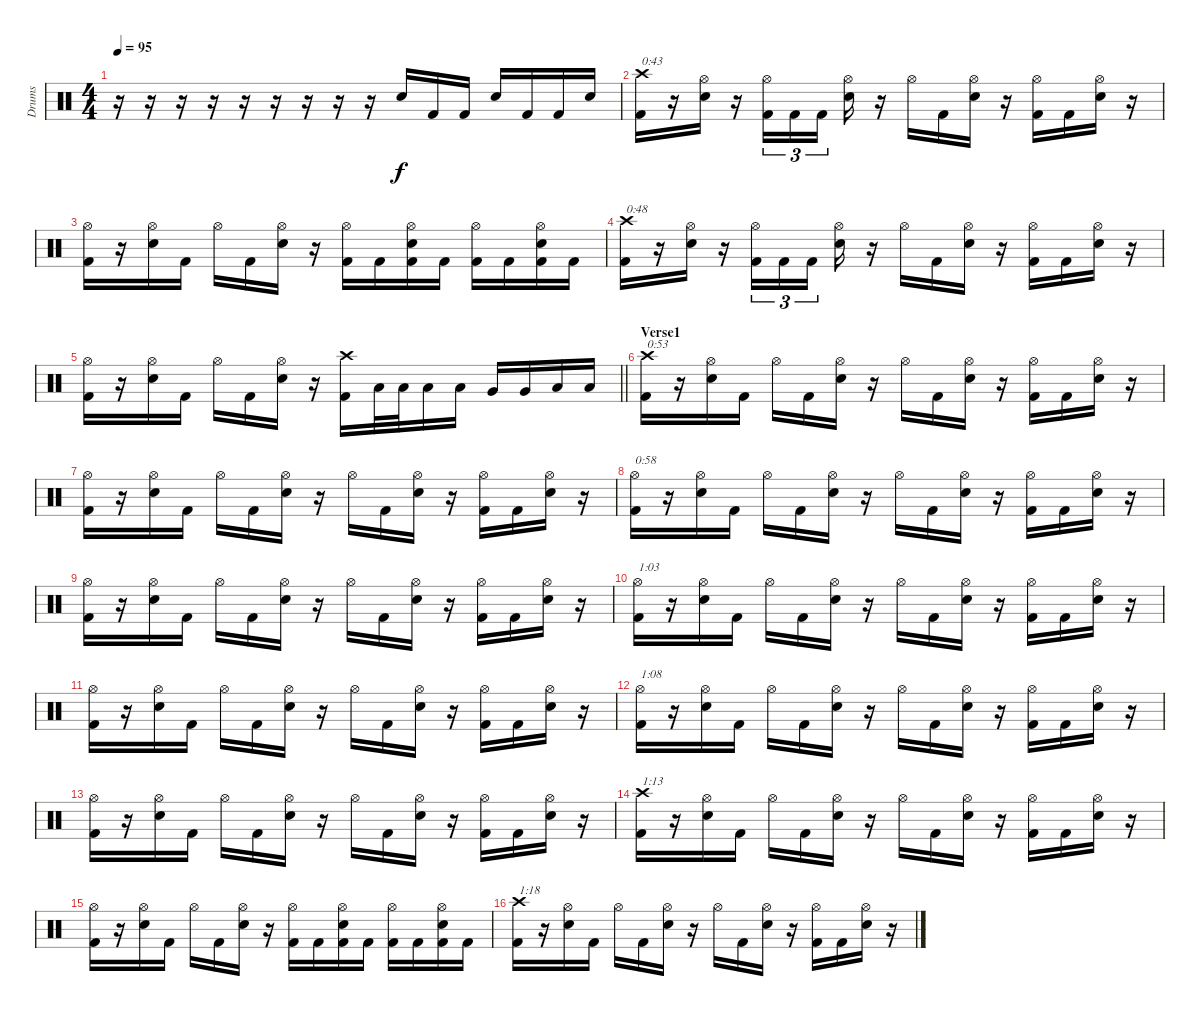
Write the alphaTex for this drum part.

\track ("Drums" "Drums") {instrument percussion}
\staff {score}
\articulation defaults
\ts (4 4)
\tempo 95
\clef neutral
\ks c
r.16{dy f} r.16 r.16 r.16 r.16 r.16 r.16 r.16 r.16 "Electric Snare (hit)".16 "Kick (hit) 2".16 "Kick (hit) 2".16 "Electric Snare (hit)".16 "Kick (hit) 2".16 "Kick (hit) 2".16 "Electric Snare (hit)".16 |
("Crash high (hit)" "Kick (hit) 2").16{txt "0:43"} r.16 ("Hi-Hat (open)" "Electric Snare (hit)").16 r.16 ("Hi-Hat (open)" "Kick (hit) 2").16{tu (3 2)} "Kick (hit) 2".16{tu (3 2)} "Kick (hit) 2".16{tu (3 2)} ("Hi-Hat (open)" "Electric Snare (hit)").16 r.16 "Hi-Hat (open)".16 "Kick (hit) 2".16 ("Hi-Hat (open)" "Electric Snare (hit)").16 r.16 ("Hi-Hat (open)" "Kick (hit) 2").16 "Kick (hit) 2".16 ("Hi-Hat (open)" "Electric Snare (hit)").16 r.16 |
("Hi-Hat (open)" "Kick (hit) 2").16 r.16 ("Hi-Hat (open)" "Electric Snare (hit)").16 "Kick (hit) 2".16 "Hi-Hat (open)".16 "Kick (hit) 2".16 ("Hi-Hat (open)" "Electric Snare (hit)").16 r.16 ("Hi-Hat (open)" "Kick (hit) 2").16 "Kick (hit) 2".16 ("Hi-Hat (open)" "Electric Snare (hit)" "Kick (hit) 2").16 "Kick (hit) 2".16 ("Hi-Hat (open)" "Kick (hit) 2").16 "Kick (hit) 2".16 ("Hi-Hat (open)" "Electric Snare (hit)" "Kick (hit) 2").16 "Kick (hit) 2".16 |
("Crash high (hit)" "Kick (hit) 2").16{txt "0:48"} r.16 ("Hi-Hat (open)" "Electric Snare (hit)").16 r.16 ("Hi-Hat (open)" "Kick (hit) 2").16{tu (3 2)} "Kick (hit) 2".16{tu (3 2)} "Kick (hit) 2".16{tu (3 2)} ("Hi-Hat (open)" "Electric Snare (hit)").16 r.16 "Hi-Hat (open)".16 "Kick (hit) 2".16 ("Hi-Hat (open)" "Electric Snare (hit)").16 r.16 ("Hi-Hat (open)" "Kick (hit) 2").16 "Kick (hit) 2".16 ("Hi-Hat (open)" "Electric Snare (hit)").16 r.16 |
\barLineRight lightlight
("Hi-Hat (open)" "Kick (hit) 2").16 r.16 ("Hi-Hat (open)" "Electric Snare (hit)").16 "Kick (hit) 2".16 "Hi-Hat (open)".16 "Kick (hit) 2".16 ("Hi-Hat (open)" "Electric Snare (hit)").16 r.16 ("Crash high (hit)" "Kick (hit) 2").16 "Low Tom (hit)".32 "Low Tom (hit)".32 "Low Tom (hit)".16 "Low Tom (hit)".16 "Very Low Tom (hit)".16 "Very Low Tom (hit)".16 "Low Floor Tom (hit)".16 "Low Floor Tom (hit)".16 |
\section ("" "Verse1")
("Crash high (hit)" "Kick (hit) 2").16{txt "0:53"} r.16 ("Hi-Hat (open)" "Electric Snare (hit)").16 "Kick (hit) 2".16 "Hi-Hat (open)".16 "Kick (hit) 2".16 ("Hi-Hat (open)" "Electric Snare (hit)").16 r.16 "Hi-Hat (open)".16 "Kick (hit) 2".16 ("Hi-Hat (open)" "Electric Snare (hit)").16 r.16 ("Hi-Hat (open)" "Kick (hit) 2").16 "Kick (hit) 2".16 ("Hi-Hat (open)" "Electric Snare (hit)").16 r.16 |
("Hi-Hat (open)" "Kick (hit) 2").16 r.16 ("Hi-Hat (open)" "Electric Snare (hit)").16 "Kick (hit) 2".16 "Hi-Hat (open)".16 "Kick (hit) 2".16 ("Hi-Hat (open)" "Electric Snare (hit)").16 r.16 "Hi-Hat (open)".16 "Kick (hit) 2".16 ("Hi-Hat (open)" "Electric Snare (hit)").16 r.16 ("Hi-Hat (open)" "Kick (hit) 2").16 "Kick (hit) 2".16 ("Hi-Hat (open)" "Electric Snare (hit)").16 r.16 |
("Hi-Hat (open)" "Kick (hit) 2").16{txt "0:58"} r.16 ("Hi-Hat (open)" "Electric Snare (hit)").16 "Kick (hit) 2".16 "Hi-Hat (open)".16 "Kick (hit) 2".16 ("Hi-Hat (open)" "Electric Snare (hit)").16 r.16 "Hi-Hat (open)".16 "Kick (hit) 2".16 ("Hi-Hat (open)" "Electric Snare (hit)").16 r.16 ("Hi-Hat (open)" "Kick (hit) 2").16 "Kick (hit) 2".16 ("Hi-Hat (open)" "Electric Snare (hit)").16 r.16 |
("Hi-Hat (open)" "Kick (hit) 2").16 r.16 ("Hi-Hat (open)" "Electric Snare (hit)").16 "Kick (hit) 2".16 "Hi-Hat (open)".16 "Kick (hit) 2".16 ("Hi-Hat (open)" "Electric Snare (hit)").16 r.16 "Hi-Hat (open)".16 "Kick (hit) 2".16 ("Hi-Hat (open)" "Electric Snare (hit)").16 r.16 ("Hi-Hat (open)" "Kick (hit) 2").16 "Kick (hit) 2".16 ("Hi-Hat (open)" "Electric Snare (hit)").16 r.16 |
("Hi-Hat (open)" "Kick (hit) 2").16{txt "1:03"} r.16 ("Hi-Hat (open)" "Electric Snare (hit)").16 "Kick (hit) 2".16 "Hi-Hat (open)".16 "Kick (hit) 2".16 ("Hi-Hat (open)" "Electric Snare (hit)").16 r.16 "Hi-Hat (open)".16 "Kick (hit) 2".16 ("Hi-Hat (open)" "Electric Snare (hit)").16 r.16 ("Hi-Hat (open)" "Kick (hit) 2").16 "Kick (hit) 2".16 ("Hi-Hat (open)" "Electric Snare (hit)").16 r.16 |
("Hi-Hat (open)" "Kick (hit) 2").16 r.16 ("Hi-Hat (open)" "Electric Snare (hit)").16 "Kick (hit) 2".16 "Hi-Hat (open)".16 "Kick (hit) 2".16 ("Hi-Hat (open)" "Electric Snare (hit)").16 r.16 "Hi-Hat (open)".16 "Kick (hit) 2".16 ("Hi-Hat (open)" "Electric Snare (hit)").16 r.16 ("Hi-Hat (open)" "Kick (hit) 2").16 "Kick (hit) 2".16 ("Hi-Hat (open)" "Electric Snare (hit)").16 r.16 |
("Hi-Hat (open)" "Kick (hit) 2").16{txt "1:08"} r.16 ("Hi-Hat (open)" "Electric Snare (hit)").16 "Kick (hit) 2".16 "Hi-Hat (open)".16 "Kick (hit) 2".16 ("Hi-Hat (open)" "Electric Snare (hit)").16 r.16 "Hi-Hat (open)".16 "Kick (hit) 2".16 ("Hi-Hat (open)" "Electric Snare (hit)").16 r.16 ("Hi-Hat (open)" "Kick (hit) 2").16 "Kick (hit) 2".16 ("Hi-Hat (open)" "Electric Snare (hit)").16 r.16 |
("Hi-Hat (open)" "Kick (hit) 2").16 r.16 ("Hi-Hat (open)" "Electric Snare (hit)").16 "Kick (hit) 2".16 "Hi-Hat (open)".16 "Kick (hit) 2".16 ("Hi-Hat (open)" "Electric Snare (hit)").16 r.16 "Hi-Hat (open)".16 "Kick (hit) 2".16 ("Hi-Hat (open)" "Electric Snare (hit)").16 r.16 ("Hi-Hat (open)" "Kick (hit) 2").16 "Kick (hit) 2".16 ("Hi-Hat (open)" "Electric Snare (hit)").16 r.16 |
("Crash high (hit)" "Kick (hit) 2").16{txt "1:13"} r.16 ("Hi-Hat (open)" "Electric Snare (hit)").16 "Kick (hit) 2".16 "Hi-Hat (open)".16 "Kick (hit) 2".16 ("Hi-Hat (open)" "Electric Snare (hit)").16 r.16 "Hi-Hat (open)".16 "Kick (hit) 2".16 ("Hi-Hat (open)" "Electric Snare (hit)").16 r.16 ("Hi-Hat (open)" "Kick (hit) 2").16 "Kick (hit) 2".16 ("Hi-Hat (open)" "Electric Snare (hit)").16 r.16 |
("Hi-Hat (open)" "Kick (hit) 2").16 r.16 ("Hi-Hat (open)" "Electric Snare (hit)").16 "Kick (hit) 2".16 "Hi-Hat (open)".16 "Kick (hit) 2".16 ("Hi-Hat (open)" "Electric Snare (hit)").16 r.16 ("Hi-Hat (open)" "Kick (hit) 2").16 "Kick (hit) 2".16 ("Hi-Hat (open)" "Electric Snare (hit)" "Kick (hit) 2").16 "Kick (hit) 2".16 ("Hi-Hat (open)" "Kick (hit) 2").16 "Kick (hit) 2".16 ("Hi-Hat (open)" "Electric Snare (hit)" "Kick (hit) 2").16 "Kick (hit) 2".16 |
("Crash high (hit)" "Kick (hit) 2").16{txt "1:18"} r.16 ("Hi-Hat (open)" "Electric Snare (hit)").16 "Kick (hit) 2".16 "Hi-Hat (open)".16 "Kick (hit) 2".16 ("Hi-Hat (open)" "Electric Snare (hit)").16 r.16 "Hi-Hat (open)".16 "Kick (hit) 2".16 ("Hi-Hat (open)" "Electric Snare (hit)").16 r.16 ("Hi-Hat (open)" "Kick (hit) 2").16 "Kick (hit) 2".16 ("Hi-Hat (open)" "Electric Snare (hit)").16 r.16
